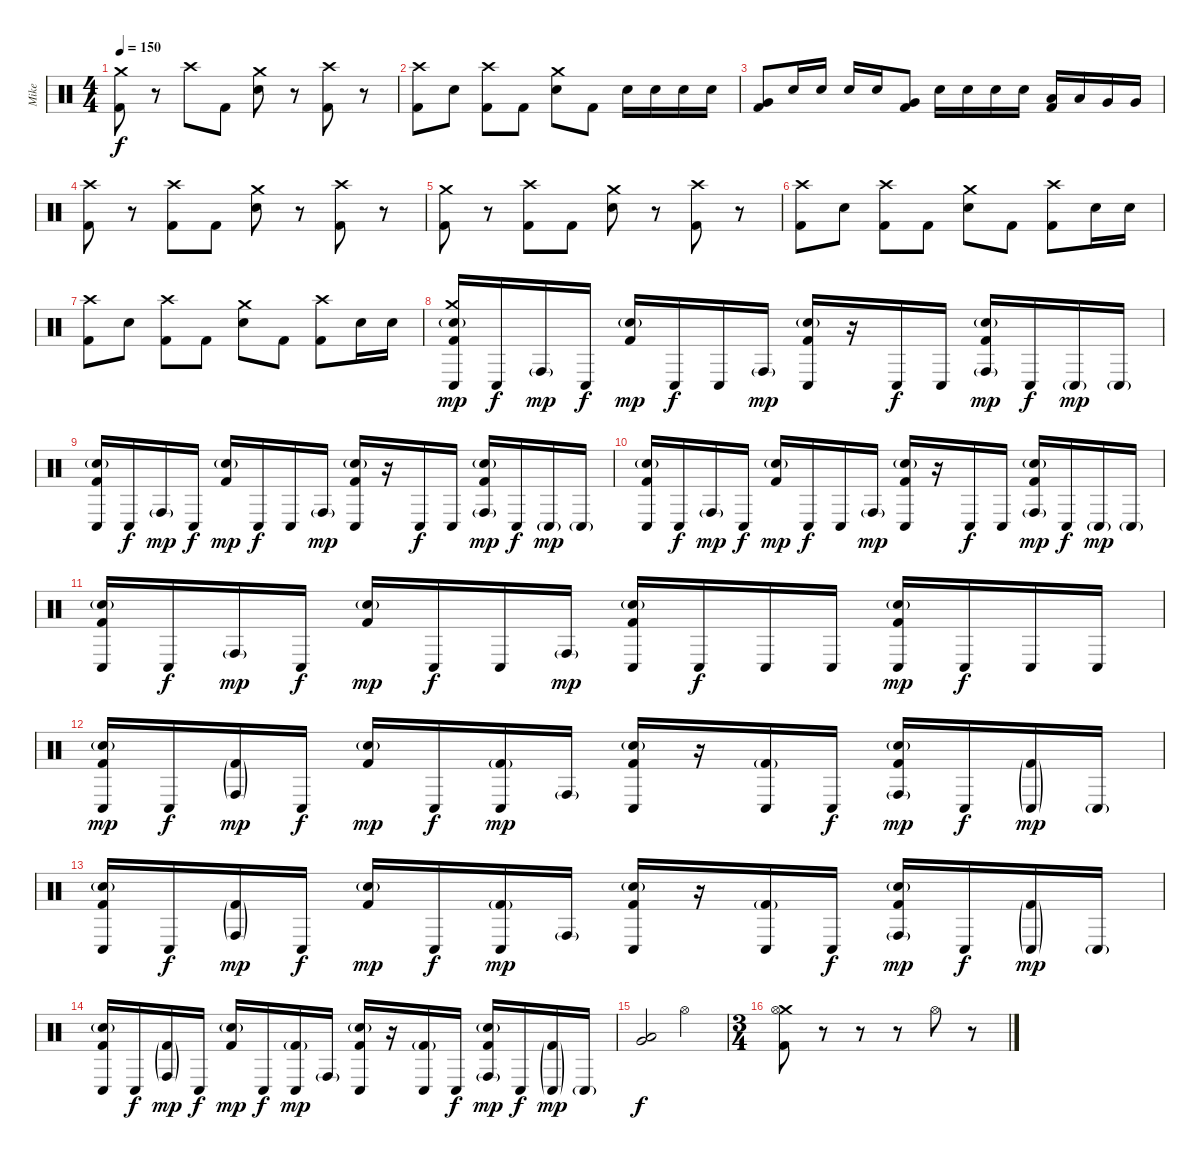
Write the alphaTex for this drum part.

\track ("Mike" "Mike") {instrument percussion}
\staff {score}
\articulation defaults
\ts (4 4)
\tempo 150
\clef neutral
\ks c
("Crash medium (hit)" "Kick (hit) 2").8{dy f} r.8 "Crash high (hit)".8 "Kick (hit) 2".8 ("Crash medium (hit)" "Electric Snare (hit)").8 r.8 ("Crash high (hit)" "Kick (hit) 2").8 r.8 |
("Crash high (hit)" "Kick (hit) 2").8 "Electric Snare (hit)".8 ("Crash high (hit)" "Kick (hit) 2").8 "Kick (hit) 2".8 ("Crash medium (hit)" "Electric Snare (hit)").8 "Kick (hit) 2".8 "Electric Snare (hit)".16 "Electric Snare (hit)".16 "Electric Snare (hit)".16 "Electric Snare (hit)".16 |
("Very Low Tom (hit)" "Kick (hit) 2").8 "Electric Snare (hit)".16 "Electric Snare (hit)".16 "Electric Snare (hit)".16 "Electric Snare (hit)".16 ("Very Low Tom (hit)" "Kick (hit) 2").8 "Electric Snare (hit)".16 "Electric Snare (hit)".16 "Electric Snare (hit)".16 "Electric Snare (hit)".16 ("Low Tom (hit)" "Kick (hit) 2").16 "Low Tom (hit)".16 "Very Low Tom (hit)".16 "Very Low Tom (hit)".16 |
("Crash high (hit)" "Kick (hit) 2").8 r.8 ("Crash high (hit)" "Kick (hit) 2").8 "Kick (hit) 2".8 ("Crash medium (hit)" "Electric Snare (hit)").8 r.8 ("Crash high (hit)" "Kick (hit) 2").8 r.8 |
("Crash medium (hit)" "Kick (hit) 2").8 r.8 ("Crash high (hit)" "Kick (hit) 2").8 "Kick (hit) 2".8 ("Crash medium (hit)" "Electric Snare (hit)").8 r.8 ("Crash high (hit)" "Kick (hit) 2").8 r.8 |
("Crash high (hit)" "Kick (hit) 2").8 "Electric Snare (hit)".8 ("Crash high (hit)" "Kick (hit) 2").8 "Kick (hit) 2".8 ("Crash medium (hit)" "Electric Snare (hit)").8 "Kick (hit) 2".8 ("Crash high (hit)" "Kick (hit) 2").8 "Electric Snare (hit)".16 "Electric Snare (hit)".16 |
("Crash high (hit)" "Kick (hit) 2").8 "Electric Snare (hit)".8 ("Crash high (hit)" "Kick (hit) 2").8 "Kick (hit) 2".8 ("Crash medium (hit)" "Electric Snare (hit)").8 "Kick (hit) 2".8 ("Crash high (hit)" "Kick (hit) 2").8 "Electric Snare (hit)".16 "Electric Snare (hit)".16 |
("Crash medium (hit)" "Hand Clap (hit)"{g} "Conga low (hit)" "Kick (hit) 2").16{dy mp} "Conga low (hit)".16{dy f} "Conga high (hit)"{g}.16{dy mp} "Conga low (hit)".16{dy f} ("Hand Clap (hit)"{g} "Kick (hit) 2").16{dy mp} "Conga low (hit)".16{dy f} "Conga low (hit)".16 "Conga high (hit)"{g}.16{dy mp} ("Hand Clap (hit)"{g} "Conga low (hit)" "Kick (hit) 2").16 r.16 "Conga low (hit)".16{dy f} "Conga low (hit)".16 ("Hand Clap (hit)"{g} "Conga high (hit)"{g} "Kick (hit) 2").16{dy mp} "Conga low (hit)".16{dy f} "Conga low (hit)"{g}.16{dy mp} "Conga low (hit)"{g}.16 |
("Hand Clap (hit)"{g} "Conga low (hit)" "Kick (hit) 2").16 "Conga low (hit)".16{dy f} "Conga high (hit)"{g}.16{dy mp} "Conga low (hit)".16{dy f} ("Hand Clap (hit)"{g} "Kick (hit) 2").16{dy mp} "Conga low (hit)".16{dy f} "Conga low (hit)".16 "Conga high (hit)"{g}.16{dy mp} ("Hand Clap (hit)"{g} "Conga low (hit)" "Kick (hit) 2").16 r.16 "Conga low (hit)".16{dy f} "Conga low (hit)".16 ("Hand Clap (hit)"{g} "Conga high (hit)"{g} "Kick (hit) 2").16{dy mp} "Conga low (hit)".16{dy f} "Conga low (hit)"{g}.16{dy mp} "Conga low (hit)"{g}.16 |
("Hand Clap (hit)"{g} "Conga low (hit)" "Kick (hit) 2").16 "Conga low (hit)".16{dy f} "Conga high (hit)"{g}.16{dy mp} "Conga low (hit)".16{dy f} ("Hand Clap (hit)"{g} "Kick (hit) 2").16{dy mp} "Conga low (hit)".16{dy f} "Conga low (hit)".16 "Conga high (hit)"{g}.16{dy mp} ("Hand Clap (hit)"{g} "Conga low (hit)" "Kick (hit) 2").16 r.16 "Conga low (hit)".16{dy f} "Conga low (hit)".16 ("Hand Clap (hit)"{g} "Conga high (hit)"{g} "Kick (hit) 2").16{dy mp} "Conga low (hit)".16{dy f} "Conga low (hit)"{g}.16{dy mp} "Conga low (hit)"{g}.16 |
("Hand Clap (hit)"{g} "Conga low (hit)" "Kick (hit) 2").16 "Conga low (hit)".16{dy f} "Conga high (hit)"{g}.16{dy mp} "Conga low (hit)".16{dy f} ("Hand Clap (hit)"{g} "Kick (hit) 2").16{dy mp} "Conga low (hit)".16{dy f} "Conga low (hit)".16 "Conga high (hit)"{g}.16{dy mp} ("Hand Clap (hit)"{g} "Conga low (hit)" "Kick (hit) 2").16 "Conga low (hit)".16{dy f} "Conga low (hit)".16 "Conga low (hit)".16 ("Hand Clap (hit)"{g} "Conga low (hit)" "Kick (hit) 2").16{dy mp} "Conga low (hit)".16{dy f} "Conga low (hit)".16 "Conga low (hit)".16 |
("Hand Clap (hit)"{g} "Conga low (hit)" "Kick (hit) 2").16{dy mp} "Conga low (hit)".16{dy f} ("Conga high (hit)"{g} "Kick (hit) 2"{g}).16{dy mp} "Conga low (hit)".16{dy f} ("Hand Clap (hit)"{g} "Kick (hit) 2").16{dy mp} "Conga low (hit)".16{dy f} ("Conga low (hit)" "Kick (hit) 2"{g}).16{dy mp} "Conga high (hit)"{g}.16 ("Hand Clap (hit)"{g} "Conga low (hit)" "Kick (hit) 2").16 r.16 ("Conga low (hit)" "Kick (hit) 2"{g}).16 "Conga low (hit)".16{dy f} ("Hand Clap (hit)"{g} "Conga high (hit)"{g} "Kick (hit) 2").16{dy mp} "Conga low (hit)".16{dy f} ("Conga low (hit)"{g} "Kick (hit) 2"{g}).16{dy mp} "Conga low (hit)"{g}.16 |
("Hand Clap (hit)"{g} "Conga low (hit)" "Kick (hit) 2").16 "Conga low (hit)".16{dy f} ("Conga high (hit)"{g} "Kick (hit) 2"{g}).16{dy mp} "Conga low (hit)".16{dy f} ("Hand Clap (hit)"{g} "Kick (hit) 2").16{dy mp} "Conga low (hit)".16{dy f} ("Conga low (hit)" "Kick (hit) 2"{g}).16{dy mp} "Conga high (hit)"{g}.16 ("Hand Clap (hit)"{g} "Conga low (hit)" "Kick (hit) 2").16 r.16 ("Conga low (hit)" "Kick (hit) 2"{g}).16 "Conga low (hit)".16{dy f} ("Hand Clap (hit)"{g} "Conga high (hit)"{g} "Kick (hit) 2").16{dy mp} "Conga low (hit)".16{dy f} ("Conga low (hit)"{g} "Kick (hit) 2"{g}).16{dy mp} "Conga low (hit)"{g}.16 |
("Hand Clap (hit)"{g} "Conga low (hit)" "Kick (hit) 2").16 "Conga low (hit)".16{dy f} ("Conga high (hit)"{g} "Kick (hit) 2"{g}).16{dy mp} "Conga low (hit)".16{dy f} ("Hand Clap (hit)"{g} "Kick (hit) 2").16{dy mp} "Conga low (hit)".16{dy f} ("Conga low (hit)" "Kick (hit) 2"{g}).16{dy mp} "Conga high (hit)"{g}.16 ("Hand Clap (hit)"{g} "Conga low (hit)" "Kick (hit) 2").16 r.16 ("Conga low (hit)" "Kick (hit) 2"{g}).16 "Conga low (hit)".16{dy f} ("Hand Clap (hit)"{g} "Conga high (hit)"{g} "Kick (hit) 2").16{dy mp} "Conga low (hit)".16{dy f} ("Conga low (hit)"{g} "Kick (hit) 2"{g}).16{dy mp} "Conga low (hit)"{g}.16 |
("Very Low Tom (hit)" "Low Tom (hit)").2{dy f} "Hi-Hat (open)".2 |
\ts (3 4)
("Crash medium (hit)" "Hi-Hat (open)" "Kick (hit) 2").8 r.8 r.8 r.8 "Hi-Hat (open)".8 r.8
